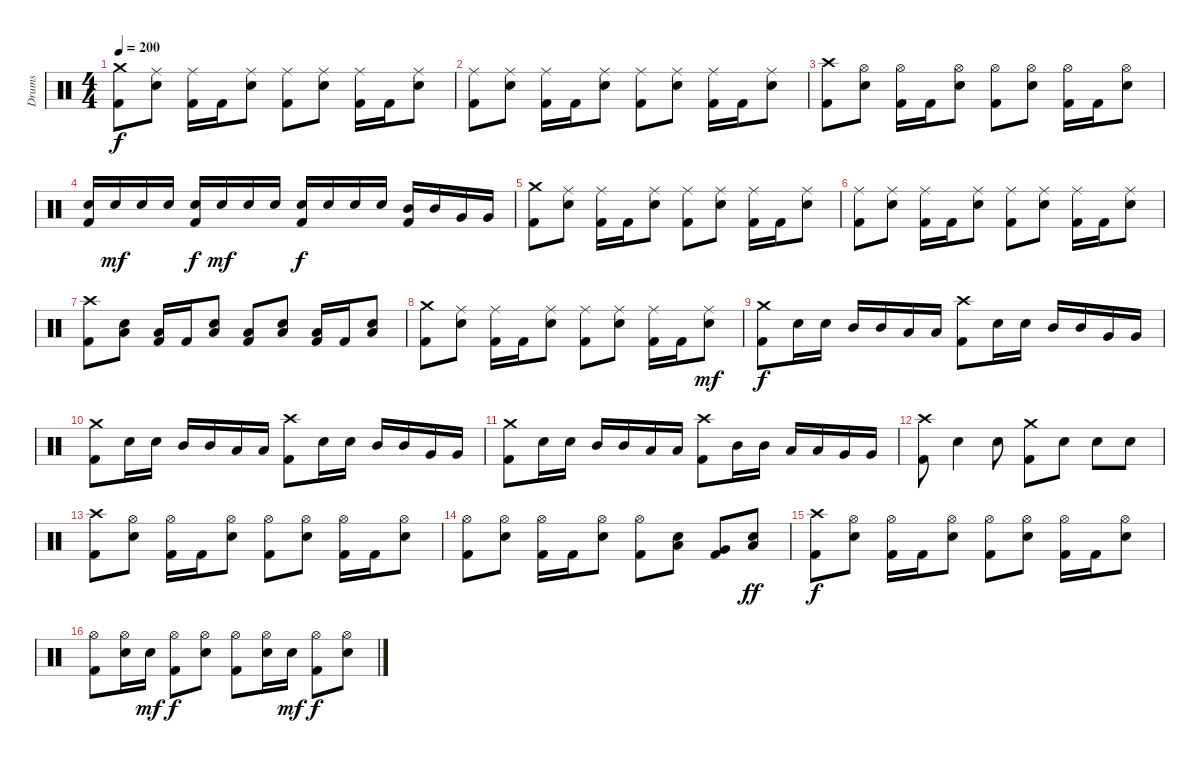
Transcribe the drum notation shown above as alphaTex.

\track ("Drums" "Drums") {instrument percussion}
\staff {score}
\articulation defaults
\ts (4 4)
\tempo 200
\clef neutral
\ks c
("Crash medium (hit)" "Kick (hit) 2").8{dy f} ("Ride (middle)" "Electric Snare (hit)").8 ("Ride (middle)" "Kick (hit) 2").16 "Kick (hit) 2".16 ("Ride (middle)" "Electric Snare (hit)").8 ("Ride (middle)" "Kick (hit) 2").8 ("Ride (middle)" "Electric Snare (hit)").8 ("Ride (middle)" "Kick (hit) 2").16 "Kick (hit) 2".16 ("Ride (middle)" "Electric Snare (hit)").8 |
("Ride (middle)" "Kick (hit) 2").8 ("Ride (middle)" "Electric Snare (hit)").8 ("Ride (middle)" "Kick (hit) 2").16 "Kick (hit) 2".16 ("Ride (middle)" "Electric Snare (hit)").8 ("Ride (middle)" "Kick (hit) 2").8 ("Ride (middle)" "Electric Snare (hit)").8 ("Ride (middle)" "Kick (hit) 2").16 "Kick (hit) 2".16 ("Ride (middle)" "Electric Snare (hit)").8 |
("Crash high (hit)" "Kick (hit) 2").8 ("Hi-Hat (open)" "Electric Snare (hit)").8 ("Hi-Hat (open)" "Kick (hit) 2").16 "Kick (hit) 2".16 ("Hi-Hat (open)" "Electric Snare (hit)").8 ("Hi-Hat (open)" "Kick (hit) 2").8 ("Hi-Hat (open)" "Electric Snare (hit)").8 ("Hi-Hat (open)" "Kick (hit) 2").16 "Kick (hit) 2".16 ("Hi-Hat (open)" "Electric Snare (hit)").8 |
("Electric Snare (hit)" "Kick (hit) 2").16 "Electric Snare (hit)".16{dy mf} "Electric Snare (hit)".16 "Electric Snare (hit)".16 ("Electric Snare (hit)" "Kick (hit) 2").16{dy f} "Electric Snare (hit)".16{dy mf} "Electric Snare (hit)".16 "Electric Snare (hit)".16 ("Electric Snare (hit)" "Kick (hit) 2").16{dy f} "Electric Snare (hit)".16 "Electric Snare (hit)".16 "Electric Snare (hit)".16 ("Mid Tom (hit)" "Kick (hit) 2").16 "Mid Tom (hit)".16 "Very Low Tom (hit)".16 "Very Low Tom (hit)".16 |
("Crash medium (hit)" "Kick (hit) 2").8 ("Ride (middle)" "Electric Snare (hit)").8 ("Ride (middle)" "Kick (hit) 2").16 "Kick (hit) 2".16 ("Ride (middle)" "Electric Snare (hit)").8 ("Ride (middle)" "Kick (hit) 2").8 ("Ride (middle)" "Electric Snare (hit)").8 ("Ride (middle)" "Kick (hit) 2").16 "Kick (hit) 2".16 ("Ride (middle)" "Electric Snare (hit)").8 |
("Ride (middle)" "Kick (hit) 2").8 ("Ride (middle)" "Electric Snare (hit)").8 ("Ride (middle)" "Kick (hit) 2").16 "Kick (hit) 2".16 ("Ride (middle)" "Electric Snare (hit)").8 ("Ride (middle)" "Kick (hit) 2").8 ("Ride (middle)" "Electric Snare (hit)").8 ("Ride (middle)" "Kick (hit) 2").16 "Kick (hit) 2".16 ("Ride (middle)" "Electric Snare (hit)").8 |
("Crash high (hit)" "Kick (hit) 2").8 ("Low Floor Tom (hit)" "Electric Snare (hit)").8 ("Low Floor Tom (hit)" "Kick (hit) 2").16 "Kick (hit) 2".16 ("Low Floor Tom (hit)" "Electric Snare (hit)").8 ("Low Floor Tom (hit)" "Kick (hit) 2").8 ("Low Floor Tom (hit)" "Electric Snare (hit)").8 ("Low Floor Tom (hit)" "Kick (hit) 2").16 "Kick (hit) 2".16 ("Low Floor Tom (hit)" "Electric Snare (hit)").8 |
("Crash medium (hit)" "Kick (hit) 2").8 ("Ride (middle)" "Electric Snare (hit)").8 ("Ride (middle)" "Kick (hit) 2").16 "Kick (hit) 2".16 ("Ride (middle)" "Electric Snare (hit)").8 ("Ride (middle)" "Kick (hit) 2").8 ("Ride (middle)" "Electric Snare (hit)").8 ("Ride (middle)" "Kick (hit) 2").16 "Kick (hit) 2".16 ("Ride (middle)" "Electric Snare (hit)").8{dy mf} |
("Crash medium (hit)" "Kick (hit) 2").8{dy f} "Electric Snare (hit)".16 "Electric Snare (hit)".16 "Mid Tom (hit)".16 "Mid Tom (hit)".16 "Low Tom (hit)".16 "Low Tom (hit)".16 ("Crash high (hit)" "Kick (hit) 2").8 "Electric Snare (hit)".16 "Electric Snare (hit)".16 "Mid Tom (hit)".16 "Mid Tom (hit)".16 "Very Low Tom (hit)".16 "Very Low Tom (hit)".16 |
("Crash medium (hit)" "Kick (hit) 2").8 "Electric Snare (hit)".16 "Electric Snare (hit)".16 "Mid Tom (hit)".16 "Mid Tom (hit)".16 "Low Tom (hit)".16 "Low Tom (hit)".16 ("Crash high (hit)" "Kick (hit) 2").8 "Electric Snare (hit)".16 "Electric Snare (hit)".16 "Mid Tom (hit)".16 "Mid Tom (hit)".16 "Very Low Tom (hit)".16 "Very Low Tom (hit)".16 |
("Crash medium (hit)" "Kick (hit) 2").8 "Electric Snare (hit)".16 "Electric Snare (hit)".16 "Mid Tom (hit)".16 "Mid Tom (hit)".16 "Low Tom (hit)".16 "Low Tom (hit)".16 ("Crash high (hit)" "Kick (hit) 2").8 "Mid Tom (hit)".16 "Mid Tom (hit)".16 "Low Tom (hit)".16 "Low Tom (hit)".16 "Very Low Tom (hit)".16 "Very Low Tom (hit)".16 |
("Crash high (hit)" "Kick (hit) 2").8 "Electric Snare (hit)".4 "Electric Snare (hit)".8 ("Crash medium (hit)" "Kick (hit) 2").8 "Electric Snare (hit)".8 "Electric Snare (hit)".8 "Electric Snare (hit)".8 |
("Crash high (hit)" "Kick (hit) 2").8 ("Hi-Hat (open)" "Electric Snare (hit)").8 ("Hi-Hat (open)" "Kick (hit) 2").16 "Kick (hit) 2".16 ("Hi-Hat (open)" "Electric Snare (hit)").8 ("Hi-Hat (open)" "Kick (hit) 2").8 ("Hi-Hat (open)" "Electric Snare (hit)").8 ("Hi-Hat (open)" "Kick (hit) 2").16 "Kick (hit) 2".16 ("Hi-Hat (open)" "Electric Snare (hit)").8 |
("Hi-Hat (open)" "Kick (hit) 2").8 ("Hi-Hat (open)" "Electric Snare (hit)").8 ("Hi-Hat (open)" "Kick (hit) 2").16 "Kick (hit) 2".16 ("Hi-Hat (open)" "Electric Snare (hit)").8 ("Hi-Hat (open)" "Kick (hit) 2").8 ("Low Floor Tom (hit)" "Electric Snare (hit)").8 ("Very Low Tom (hit)" "Kick (hit) 2").8 ("Low Floor Tom (hit)" "Electric Snare (hit)").8{dy ff} |
("Crash high (hit)" "Kick (hit) 2").8{dy f} ("Hi-Hat (open)" "Electric Snare (hit)").8 ("Hi-Hat (open)" "Kick (hit) 2").16 "Kick (hit) 2".16 ("Hi-Hat (open)" "Electric Snare (hit)").8 ("Hi-Hat (open)" "Kick (hit) 2").8 ("Hi-Hat (open)" "Electric Snare (hit)").8 ("Hi-Hat (open)" "Kick (hit) 2").16 "Kick (hit) 2".16 ("Hi-Hat (open)" "Electric Snare (hit)").8 |
("Hi-Hat (open)" "Kick (hit) 2").8 ("Hi-Hat (open)" "Electric Snare (hit)").16 "Electric Snare (hit)".16{dy mf} ("Hi-Hat (open)" "Kick (hit) 2").8{dy f} ("Hi-Hat (open)" "Electric Snare (hit)").8 ("Hi-Hat (open)" "Kick (hit) 2").8 ("Hi-Hat (open)" "Electric Snare (hit)").16 "Electric Snare (hit)".16{dy mf} ("Hi-Hat (open)" "Kick (hit) 2").8{dy f} ("Hi-Hat (open)" "Electric Snare (hit)").8
